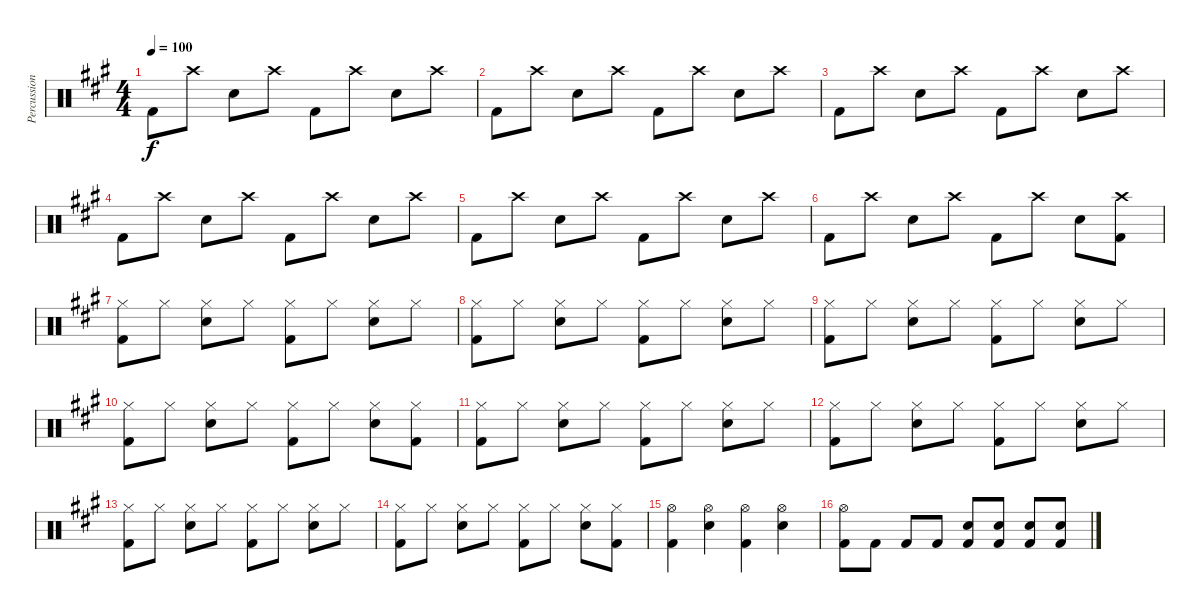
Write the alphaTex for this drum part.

\track ("Percussion" "Percussion") {instrument percussion}
\staff {score}
\articulation defaults
\ts (4 4)
\tempo 100
\clef neutral
\ks a "Kick (hit) 2".8{dy f} "Crash high (hit)".8 "Snare (hit) 2".8 "Crash high (hit)".8 "Kick (hit) 2".8 "Crash high (hit)".8 "Snare (hit) 2".8 "Crash high (hit)".8
|
"Kick (hit) 2".8 "Crash high (hit)".8 "Snare (hit) 2".8 "Crash high (hit)".8 "Kick (hit) 2".8 "Crash high (hit)".8 "Snare (hit) 2".8 "Crash high (hit)".8 |
"Kick (hit) 2".8 "Crash high (hit)".8 "Snare (hit) 2".8 "Crash high (hit)".8 "Kick (hit) 2".8 "Crash high (hit)".8 "Snare (hit) 2".8 "Crash high (hit)".8 |
"Kick (hit) 2".8 "Crash high (hit)".8 "Snare (hit) 2".8 "Crash high (hit)".8 "Kick (hit) 2".8 "Crash high (hit)".8 "Snare (hit) 2".8 "Crash high (hit)".8 |
"Kick (hit) 2".8 "Crash high (hit)".8 "Snare (hit) 2".8 "Crash high (hit)".8 "Kick (hit) 2".8 "Crash high (hit)".8 "Snare (hit) 2".8 "Crash high (hit)".8 |
"Kick (hit) 2".8 "Crash high (hit)".8 "Snare (hit) 2".8 "Crash high (hit)".8 "Kick (hit) 2".8 "Crash high (hit)".8 "Snare (hit) 2".8 ("Crash high (hit)" "Kick (hit) 2").8 |
("Hi-Hat (closed)" "Kick (hit) 2").8 "Hi-Hat (closed)".8 ("Hi-Hat (closed)" "Snare (hit) 2").8 "Hi-Hat (closed)".8 ("Hi-Hat (closed)" "Kick (hit) 2").8 "Hi-Hat (closed)".8 ("Hi-Hat (closed)" "Snare (hit) 2").8 "Hi-Hat (closed)".8 |
("Hi-Hat (closed)" "Kick (hit) 2").8 "Hi-Hat (closed)".8 ("Hi-Hat (closed)" "Snare (hit) 2").8 "Hi-Hat (closed)".8 ("Hi-Hat (closed)" "Kick (hit) 2").8 "Hi-Hat (closed)".8 ("Hi-Hat (closed)" "Snare (hit) 2").8 "Hi-Hat (closed)".8 |
("Hi-Hat (closed)" "Kick (hit) 2").8 "Hi-Hat (closed)".8 ("Hi-Hat (closed)" "Snare (hit) 2").8 "Hi-Hat (closed)".8 ("Hi-Hat (closed)" "Kick (hit) 2").8 "Hi-Hat (closed)".8 ("Hi-Hat (closed)" "Snare (hit) 2").8 "Hi-Hat (closed)".8 |
("Hi-Hat (closed)" "Kick (hit) 2").8 "Hi-Hat (closed)".8 ("Hi-Hat (closed)" "Snare (hit) 2").8 "Hi-Hat (closed)".8 ("Hi-Hat (closed)" "Kick (hit) 2").8 "Hi-Hat (closed)".8 ("Hi-Hat (closed)" "Snare (hit) 2").8 ("Hi-Hat (closed)" "Kick (hit) 2").8 |
("Hi-Hat (closed)" "Kick (hit) 2").8 "Hi-Hat (closed)".8 ("Hi-Hat (closed)" "Snare (hit) 2").8 "Hi-Hat (closed)".8 ("Hi-Hat (closed)" "Kick (hit) 2").8 "Hi-Hat (closed)".8 ("Hi-Hat (closed)" "Snare (hit) 2").8 "Hi-Hat (closed)".8 |
("Hi-Hat (closed)" "Kick (hit) 2").8 "Hi-Hat (closed)".8 ("Hi-Hat (closed)" "Snare (hit) 2").8 "Hi-Hat (closed)".8 ("Hi-Hat (closed)" "Kick (hit) 2").8 "Hi-Hat (closed)".8 ("Hi-Hat (closed)" "Snare (hit) 2").8 "Hi-Hat (closed)".8 |
("Hi-Hat (closed)" "Kick (hit) 2").8 "Hi-Hat (closed)".8 ("Hi-Hat (closed)" "Snare (hit) 2").8 "Hi-Hat (closed)".8 ("Hi-Hat (closed)" "Kick (hit) 2").8 "Hi-Hat (closed)".8 ("Hi-Hat (closed)" "Snare (hit) 2").8 "Hi-Hat (closed)".8 |
("Hi-Hat (closed)" "Kick (hit) 2").8 "Hi-Hat (closed)".8 ("Hi-Hat (closed)" "Snare (hit) 2").8 "Hi-Hat (closed)".8 ("Hi-Hat (closed)" "Kick (hit) 2").8 "Hi-Hat (closed)".8 ("Hi-Hat (closed)" "Snare (hit) 2").8 ("Hi-Hat (closed)" "Kick (hit) 2").8 |
("Hi-Hat (open)" "Kick (hit) 2").4 ("Hi-Hat (open)" "Snare (hit) 2").4 ("Hi-Hat (open)" "Kick (hit) 2").4 ("Hi-Hat (open)" "Snare (hit) 2").4 |
("Hi-Hat (open)" "Kick (hit) 2").8 "Kick (hit) 2".8 "Kick (hit) 2".8 "Kick (hit) 2".8 ("Snare (hit) 2" "Kick (hit) 2").8 ("Snare (hit) 2" "Kick (hit) 2").8 ("Snare (hit) 2" "Kick (hit) 2").8 ("Snare (hit) 2" "Kick (hit) 2").8
